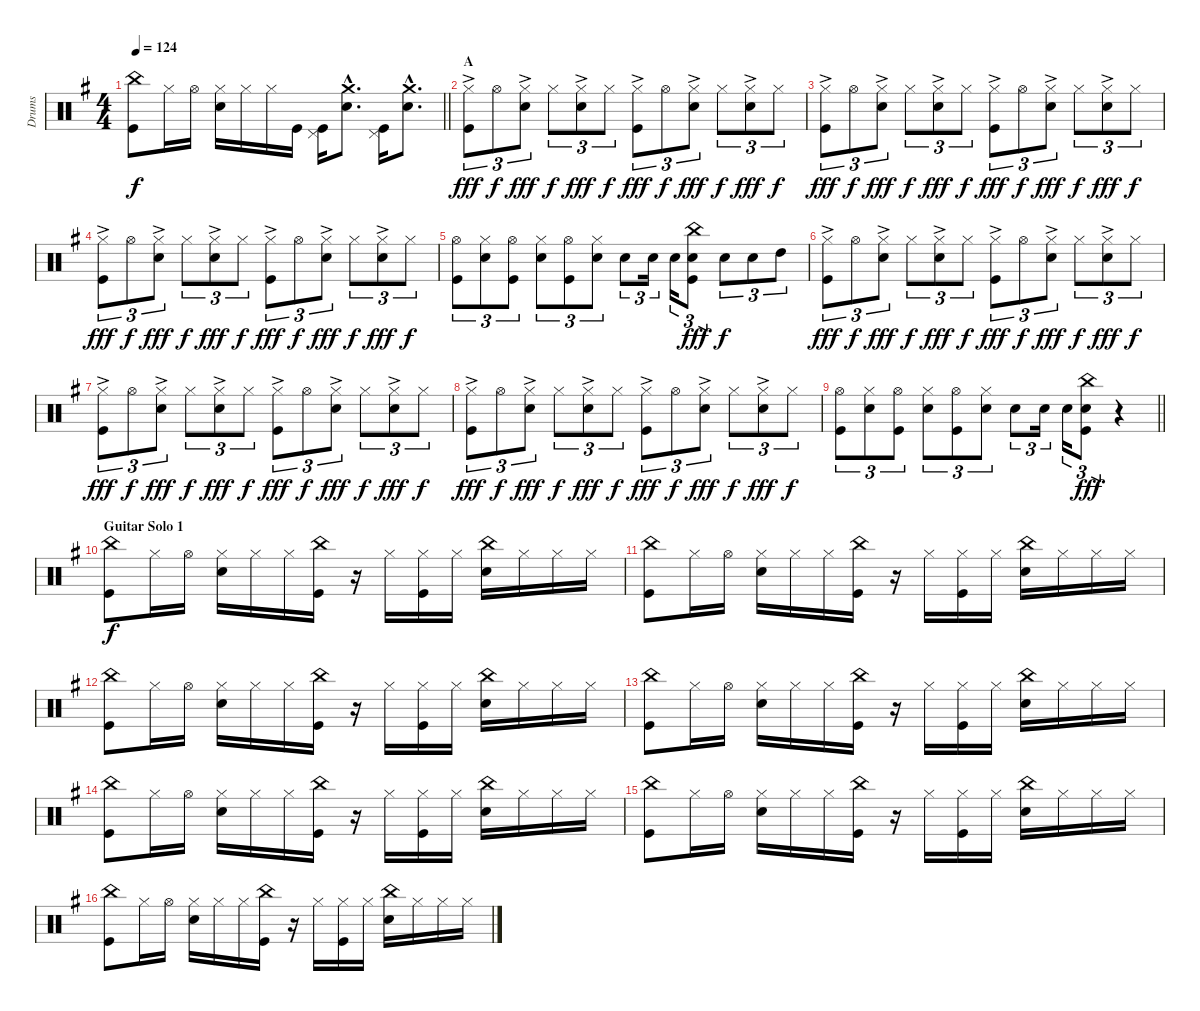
\track ("Drums" "Drums") {instrument percussion}
\staff {score}
\articulation defaults
\ts (4 4)
\tempo 124
\clef neutral
\barLineRight lightlight
\ks eminor
("China (hit)" "Kick (hit)").8{dy f} "Hi-Hat (closed)".16 "Hi-Hat (open)".16 ("Hi-Hat (closed)" "Electric Snare (hit)").16 "Hi-Hat (closed)".16 "Hi-Hat (closed)".16 "Kick (hit)".16 ("Pedal Hi-Hat (hit)" "Kick (hit)").16 ("Crash medium (hit)"{hac} "Electric Snare (hit)"{hac}).8{d} ("Pedal Hi-Hat (hit)" "Kick (hit)").16 ("Crash medium (hit)"{hac} "Electric Snare (hit)"{hac}).8{d} |
\section ("" "A")
("Hi-Hat (closed)"{ac} "Kick (hit)").8{tu (3 2) dy fff} "Hi-Hat (open)".8{tu (3 2) dy f} ("Hi-Hat (closed)"{ac} "Electric Snare (hit)").8{tu (3 2) dy fff} "Hi-Hat (closed)".8{tu (3 2) dy f} ("Hi-Hat (closed)"{ac} "Electric Snare (hit)").8{tu (3 2) dy fff} "Hi-Hat (closed)".8{tu (3 2) dy f} ("Hi-Hat (closed)"{ac} "Kick (hit)").8{tu (3 2) dy fff} "Hi-Hat (open)".8{tu (3 2) dy f} ("Hi-Hat (closed)"{ac} "Electric Snare (hit)").8{tu (3 2) dy fff} "Hi-Hat (closed)".8{tu (3 2) dy f} ("Hi-Hat (closed)"{ac} "Electric Snare (hit)").8{tu (3 2) dy fff} "Hi-Hat (closed)".8{tu (3 2) dy f} |
("Hi-Hat (closed)"{ac} "Kick (hit)").8{tu (3 2) dy fff} "Hi-Hat (open)".8{tu (3 2) dy f} ("Hi-Hat (closed)"{ac} "Electric Snare (hit)").8{tu (3 2) dy fff} "Hi-Hat (closed)".8{tu (3 2) dy f} ("Hi-Hat (closed)"{ac} "Electric Snare (hit)").8{tu (3 2) dy fff} "Hi-Hat (closed)".8{tu (3 2) dy f} ("Hi-Hat (closed)"{ac} "Kick (hit)").8{tu (3 2) dy fff} "Hi-Hat (open)".8{tu (3 2) dy f} ("Hi-Hat (closed)"{ac} "Electric Snare (hit)").8{tu (3 2) dy fff} "Hi-Hat (closed)".8{tu (3 2) dy f} ("Hi-Hat (closed)"{ac} "Electric Snare (hit)").8{tu (3 2) dy fff} "Hi-Hat (closed)".8{tu (3 2) dy f} |
("Hi-Hat (closed)"{ac} "Kick (hit)").8{tu (3 2) dy fff} "Hi-Hat (open)".8{tu (3 2) dy f} ("Hi-Hat (closed)"{ac} "Electric Snare (hit)").8{tu (3 2) dy fff} "Hi-Hat (closed)".8{tu (3 2) dy f} ("Hi-Hat (closed)"{ac} "Electric Snare (hit)").8{tu (3 2) dy fff} "Hi-Hat (closed)".8{tu (3 2) dy f} ("Hi-Hat (closed)"{ac} "Kick (hit)").8{tu (3 2) dy fff} "Hi-Hat (open)".8{tu (3 2) dy f} ("Hi-Hat (closed)"{ac} "Electric Snare (hit)").8{tu (3 2) dy fff} "Hi-Hat (closed)".8{tu (3 2) dy f} ("Hi-Hat (closed)"{ac} "Electric Snare (hit)").8{tu (3 2) dy fff} "Hi-Hat (closed)".8{tu (3 2) dy f} |
("Hi-Hat (open)" "Kick (hit)").8{tu (3 2)} ("Hi-Hat (closed)" "Electric Snare (hit)").8{tu (3 2)} ("Hi-Hat (open)" "Kick (hit)").8{tu (3 2)} ("Hi-Hat (closed)" "Electric Snare (hit)").8{tu (3 2)} ("Hi-Hat (open)" "Kick (hit)").8{tu (3 2)} ("Hi-Hat (closed)" "Electric Snare (hit)").8{tu (3 2)} "Electric Snare (hit)".8{tu (3 2)} "Electric Snare (hit)".16{tu (3 2)} "Electric Snare (hit)".16{tu (3 2)} ("China (hit)" "Electric Snare (hit)" "Kick (hit)").8{tu (3 2) dy fff} "Electric Snare (hit)".8{tu (3 2) dy f} "Electric Snare (hit)".8{tu (3 2)} "High Tom (hit)".8{tu (3 2)} |
("Hi-Hat (closed)"{ac} "Kick (hit)").8{tu (3 2) dy fff} "Hi-Hat (open)".8{tu (3 2) dy f} ("Hi-Hat (closed)"{ac} "Electric Snare (hit)").8{tu (3 2) dy fff} "Hi-Hat (closed)".8{tu (3 2) dy f} ("Hi-Hat (closed)"{ac} "Electric Snare (hit)").8{tu (3 2) dy fff} "Hi-Hat (closed)".8{tu (3 2) dy f} ("Hi-Hat (closed)"{ac} "Kick (hit)").8{tu (3 2) dy fff} "Hi-Hat (open)".8{tu (3 2) dy f} ("Hi-Hat (closed)"{ac} "Electric Snare (hit)").8{tu (3 2) dy fff} "Hi-Hat (closed)".8{tu (3 2) dy f} ("Hi-Hat (closed)"{ac} "Electric Snare (hit)").8{tu (3 2) dy fff} "Hi-Hat (closed)".8{tu (3 2) dy f} |
("Hi-Hat (closed)"{ac} "Kick (hit)").8{tu (3 2) dy fff} "Hi-Hat (open)".8{tu (3 2) dy f} ("Hi-Hat (closed)"{ac} "Electric Snare (hit)").8{tu (3 2) dy fff} "Hi-Hat (closed)".8{tu (3 2) dy f} ("Hi-Hat (closed)"{ac} "Electric Snare (hit)").8{tu (3 2) dy fff} "Hi-Hat (closed)".8{tu (3 2) dy f} ("Hi-Hat (closed)"{ac} "Kick (hit)").8{tu (3 2) dy fff} "Hi-Hat (open)".8{tu (3 2) dy f} ("Hi-Hat (closed)"{ac} "Electric Snare (hit)").8{tu (3 2) dy fff} "Hi-Hat (closed)".8{tu (3 2) dy f} ("Hi-Hat (closed)"{ac} "Electric Snare (hit)").8{tu (3 2) dy fff} "Hi-Hat (closed)".8{tu (3 2) dy f} |
("Hi-Hat (closed)"{ac} "Kick (hit)").8{tu (3 2) dy fff} "Hi-Hat (open)".8{tu (3 2) dy f} ("Hi-Hat (closed)"{ac} "Electric Snare (hit)").8{tu (3 2) dy fff} "Hi-Hat (closed)".8{tu (3 2) dy f} ("Hi-Hat (closed)"{ac} "Electric Snare (hit)").8{tu (3 2) dy fff} "Hi-Hat (closed)".8{tu (3 2) dy f} ("Hi-Hat (closed)"{ac} "Kick (hit)").8{tu (3 2) dy fff} "Hi-Hat (open)".8{tu (3 2) dy f} ("Hi-Hat (closed)"{ac} "Electric Snare (hit)").8{tu (3 2) dy fff} "Hi-Hat (closed)".8{tu (3 2) dy f} ("Hi-Hat (closed)"{ac} "Electric Snare (hit)").8{tu (3 2) dy fff} "Hi-Hat (closed)".8{tu (3 2) dy f} |
\barLineRight lightlight
("Hi-Hat (open)" "Kick (hit)").8{tu (3 2)} ("Hi-Hat (closed)" "Electric Snare (hit)").8{tu (3 2)} ("Hi-Hat (open)" "Kick (hit)").8{tu (3 2)} ("Hi-Hat (closed)" "Electric Snare (hit)").8{tu (3 2)} ("Hi-Hat (open)" "Kick (hit)").8{tu (3 2)} ("Hi-Hat (closed)" "Electric Snare (hit)").8{tu (3 2)} "Electric Snare (hit)".8{tu (3 2)} "Electric Snare (hit)".16{tu (3 2)} "Electric Snare (hit)".16{tu (3 2)} ("China (hit)" "Electric Snare (hit)" "Kick (hit)").8{tu (3 2) dy fff} r.4 |
\section ("" "Guitar Solo 1")
("China (hit)" "Kick (hit)").8{dy f} "Hi-Hat (closed)".16 "Hi-Hat (open)".16 ("Hi-Hat (closed)" "Electric Snare (hit)").16 "Hi-Hat (closed)".16 "Hi-Hat (closed)".16 ("China (hit)" "Kick (hit)").16 r.16 "Hi-Hat (closed)".16 ("Hi-Hat (closed)" "Kick (hit)").16 "Hi-Hat (closed)".16 ("China (hit)" "Electric Snare (hit)").16 "Hi-Hat (closed)".16 "Hi-Hat (closed)".16 "Hi-Hat (closed)".16 |
("China (hit)" "Kick (hit)").8 "Hi-Hat (closed)".16 "Hi-Hat (open)".16 ("Hi-Hat (closed)" "Electric Snare (hit)").16 "Hi-Hat (closed)".16 "Hi-Hat (closed)".16 ("China (hit)" "Kick (hit)").16 r.16 "Hi-Hat (closed)".16 ("Hi-Hat (closed)" "Kick (hit)").16 "Hi-Hat (closed)".16 ("China (hit)" "Electric Snare (hit)").16 "Hi-Hat (closed)".16 "Hi-Hat (closed)".16 "Hi-Hat (closed)".16 |
("China (hit)" "Kick (hit)").8 "Hi-Hat (closed)".16 "Hi-Hat (open)".16 ("Hi-Hat (closed)" "Electric Snare (hit)").16 "Hi-Hat (closed)".16 "Hi-Hat (closed)".16 ("China (hit)" "Kick (hit)").16 r.16 "Hi-Hat (closed)".16 ("Hi-Hat (closed)" "Kick (hit)").16 "Hi-Hat (closed)".16 ("China (hit)" "Electric Snare (hit)").16 "Hi-Hat (closed)".16 "Hi-Hat (closed)".16 "Hi-Hat (closed)".16 |
("China (hit)" "Kick (hit)").8 "Hi-Hat (closed)".16 "Hi-Hat (open)".16 ("Hi-Hat (closed)" "Electric Snare (hit)").16 "Hi-Hat (closed)".16 "Hi-Hat (closed)".16 ("China (hit)" "Kick (hit)").16 r.16 "Hi-Hat (closed)".16 ("Hi-Hat (closed)" "Kick (hit)").16 "Hi-Hat (closed)".16 ("China (hit)" "Electric Snare (hit)").16 "Hi-Hat (closed)".16 "Hi-Hat (closed)".16 "Hi-Hat (closed)".16 |
("China (hit)" "Kick (hit)").8 "Hi-Hat (closed)".16 "Hi-Hat (open)".16 ("Hi-Hat (closed)" "Electric Snare (hit)").16 "Hi-Hat (closed)".16 "Hi-Hat (closed)".16 ("China (hit)" "Kick (hit)").16 r.16 "Hi-Hat (closed)".16 ("Hi-Hat (closed)" "Kick (hit)").16 "Hi-Hat (closed)".16 ("China (hit)" "Electric Snare (hit)").16 "Hi-Hat (closed)".16 "Hi-Hat (closed)".16 "Hi-Hat (closed)".16 |
("China (hit)" "Kick (hit)").8 "Hi-Hat (closed)".16 "Hi-Hat (open)".16 ("Hi-Hat (closed)" "Electric Snare (hit)").16 "Hi-Hat (closed)".16 "Hi-Hat (closed)".16 ("China (hit)" "Kick (hit)").16 r.16 "Hi-Hat (closed)".16 ("Hi-Hat (closed)" "Kick (hit)").16 "Hi-Hat (closed)".16 ("China (hit)" "Electric Snare (hit)").16 "Hi-Hat (closed)".16 "Hi-Hat (closed)".16 "Hi-Hat (closed)".16 |
("China (hit)" "Kick (hit)").8 "Hi-Hat (closed)".16 "Hi-Hat (open)".16 ("Hi-Hat (closed)" "Electric Snare (hit)").16 "Hi-Hat (closed)".16 "Hi-Hat (closed)".16 ("China (hit)" "Kick (hit)").16 r.16 "Hi-Hat (closed)".16 ("Hi-Hat (closed)" "Kick (hit)").16 "Hi-Hat (closed)".16 ("China (hit)" "Electric Snare (hit)").16 "Hi-Hat (closed)".16 "Hi-Hat (closed)".16 "Hi-Hat (closed)".16
